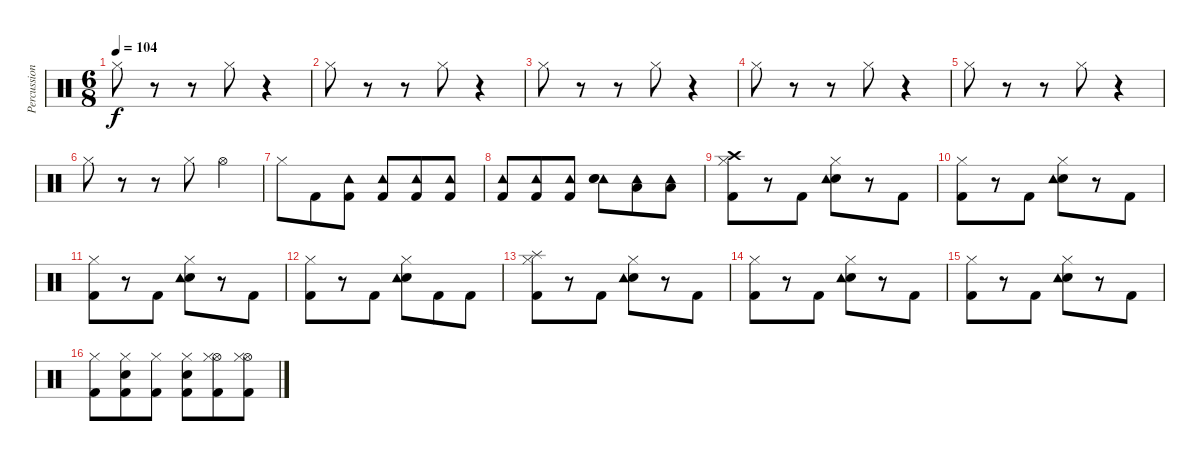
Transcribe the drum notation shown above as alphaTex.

\track ("Percussion" "Percussion") {instrument percussion}
\staff {score}
\articulation defaults
\ts (6 8)
\tempo 104
\clef neutral
\ks c "Hi-Hat (closed)".8{dy f}
r.8 r.8 "Hi-Hat (closed)".8 r.4 |
"Hi-Hat (closed)".8 r.8 r.8 "Hi-Hat (closed)".8 r.4 |
"Hi-Hat (closed)".8 r.8 r.8 "Hi-Hat (closed)".8 r.4 |
"Hi-Hat (closed)".8 r.8 r.8 "Hi-Hat (closed)".8 r.4 |
"Hi-Hat (closed)".8 r.8 r.8 "Hi-Hat (closed)".8 r.4 |
"Hi-Hat (closed)".8 r.8 r.8 "Hi-Hat (closed)".8 "Hi-Hat (open)".4 |
"Hi-Hat (closed)".8 "Kick (hit) 2".8 ("Tambourine (hit)" "Kick (hit) 2").8 ("Tambourine (hit)" "Kick (hit) 2").8 ("Tambourine (hit)" "Kick (hit) 2").8 ("Tambourine (hit)" "Kick (hit) 2").8 |
("Tambourine (hit)" "Kick (hit) 2").8 ("Tambourine (hit)" "Kick (hit) 2").8 ("Tambourine (hit)" "Kick (hit) 2").8 ("Tambourine (hit)" "Snare (hit) 2" "Snare (hit) 2").8 ("Tambourine (hit)" "Low Tom (hit)").8 ("Tambourine (hit)" "Low Tom (hit)").8 |
("Hi-Hat (closed)" "Crash high (hit)" "Kick (hit) 2").8 r.8 "Kick (hit) 2".8 ("Snare (hit) 2" "Tambourine (hit)" "Hi-Hat (closed)").8 r.8 "Kick (hit) 2".8 |
("Hi-Hat (closed)" "Kick (hit) 2").8 r.8 "Kick (hit) 2".8 ("Snare (hit) 2" "Tambourine (hit)" "Hi-Hat (closed)").8 r.8 "Kick (hit) 2".8 |
("Hi-Hat (closed)" "Kick (hit) 2").8 r.8 "Kick (hit) 2".8 ("Snare (hit) 2" "Tambourine (hit)" "Hi-Hat (closed)").8 r.8 "Kick (hit) 2".8 |
("Hi-Hat (closed)" "Kick (hit) 2").8 r.8 "Kick (hit) 2".8 ("Snare (hit) 2" "Tambourine (hit)" "Hi-Hat (closed)").8 "Kick (hit) 2".8 "Kick (hit) 2".8 |
("Hi-Hat (closed)" "Splash (hit)" "Kick (hit) 2").8 r.8 "Kick (hit) 2".8 ("Snare (hit) 2" "Tambourine (hit)" "Hi-Hat (closed)").8 r.8 "Kick (hit) 2".8 |
("Hi-Hat (closed)" "Kick (hit) 2").8 r.8 "Kick (hit) 2".8 ("Snare (hit) 2" "Tambourine (hit)" "Hi-Hat (closed)").8 r.8 "Kick (hit) 2".8 |
("Hi-Hat (closed)" "Kick (hit) 2").8 r.8 "Kick (hit) 2".8 ("Snare (hit) 2" "Tambourine (hit)" "Hi-Hat (closed)").8 r.8 "Kick (hit) 2".8 |
("Kick (hit) 2" "Hi-Hat (closed)").8 ("Snare (hit) 2" "Kick (hit) 2" "Hi-Hat (closed)").8 ("Kick (hit) 2" "Hi-Hat (closed)").8 ("Snare (hit) 2" "Kick (hit) 2" "Hi-Hat (closed)").8 ("Hi-Hat (open)" "Kick (hit) 2" "Hi-Hat (closed)").8 ("Hi-Hat (open)" "Kick (hit) 2" "Hi-Hat (closed)").8
